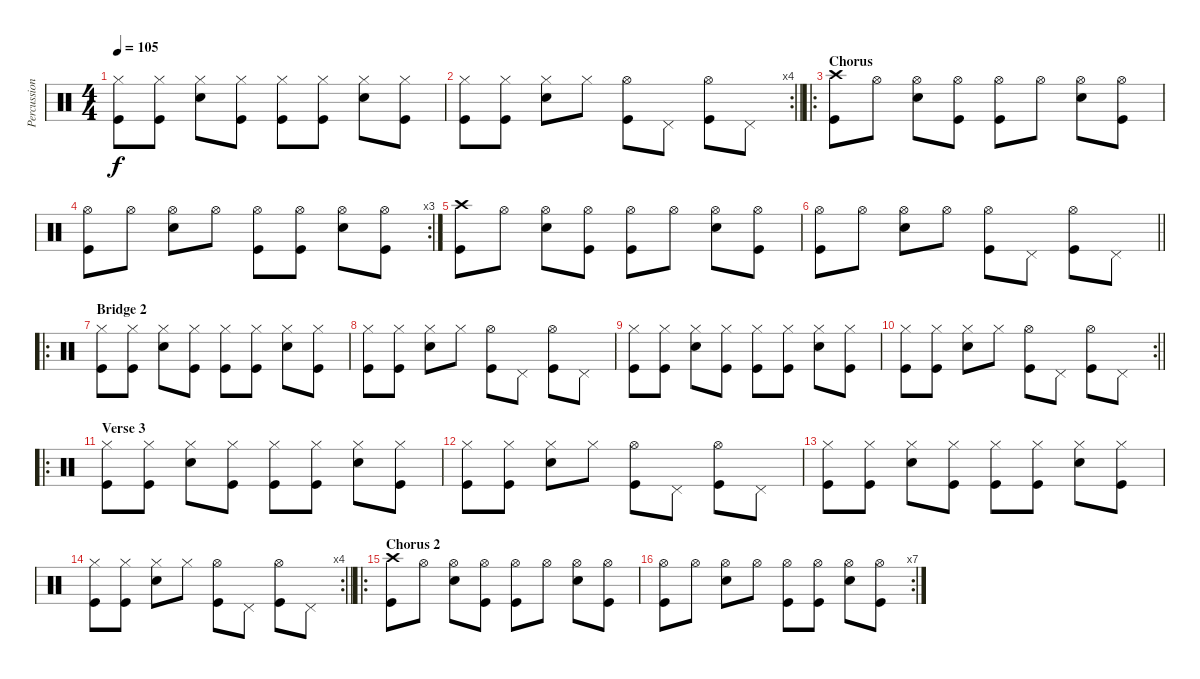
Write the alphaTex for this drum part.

\track ("Percussion" "Percussion") {instrument percussion}
\staff {score}
\articulation defaults
\ts (4 4)
\tempo 105
\clef neutral
\ks c
("Hi-Hat (closed)" "Kick (hit)").8{dy f} ("Hi-Hat (closed)" "Kick (hit)").8 ("Hi-Hat (closed)" "Electric Snare (hit)").8 ("Hi-Hat (closed)" "Kick (hit)").8 ("Hi-Hat (closed)" "Kick (hit)").8 ("Hi-Hat (closed)" "Kick (hit)").8 ("Hi-Hat (closed)" "Electric Snare (hit)").8 ("Hi-Hat (closed)" "Kick (hit)").8 |
\rc 4
\barLineRight lightlight
("Hi-Hat (closed)" "Kick (hit)").8 ("Hi-Hat (closed)" "Kick (hit)").8 ("Hi-Hat (closed)" "Electric Snare (hit)").8 "Hi-Hat (closed)".8 ("Hi-Hat (open)" "Kick (hit)").8 "Pedal Hi-Hat (hit)".8 ("Hi-Hat (open)" "Kick (hit)").8 "Pedal Hi-Hat (hit)".8 |
\ro
\section ("" "Chorus")
("Crash high (hit)" "Kick (hit)").8 "Hi-Hat (open)".8 ("Hi-Hat (open)" "Snare (hit) 2").8 ("Hi-Hat (open)" "Kick (hit)").8 ("Hi-Hat (open)" "Kick (hit)").8 "Hi-Hat (open)".8 ("Hi-Hat (open)" "Snare (hit) 2").8 ("Hi-Hat (open)" "Kick (hit)").8 |
\rc 3
("Hi-Hat (open)" "Kick (hit)").8 "Hi-Hat (open)".8 ("Hi-Hat (open)" "Snare (hit) 2").8 "Hi-Hat (open)".8 ("Hi-Hat (open)" "Kick (hit)").8 ("Hi-Hat (open)" "Kick (hit)").8 ("Hi-Hat (open)" "Snare (hit) 2").8 ("Hi-Hat (open)" "Kick (hit)").8 |
("Crash high (hit)" "Kick (hit)").8 "Hi-Hat (open)".8 ("Hi-Hat (open)" "Snare (hit) 2").8 ("Hi-Hat (open)" "Kick (hit)").8 ("Hi-Hat (open)" "Kick (hit)").8 "Hi-Hat (open)".8 ("Hi-Hat (open)" "Snare (hit) 2").8 ("Hi-Hat (open)" "Kick (hit)").8 |
\barLineRight lightlight
("Hi-Hat (open)" "Kick (hit)").8 "Hi-Hat (open)".8 ("Hi-Hat (open)" "Snare (hit) 2").8 "Hi-Hat (open)".8 ("Hi-Hat (open)" "Kick (hit)").8 "Pedal Hi-Hat (hit)".8 ("Hi-Hat (open)" "Kick (hit)").8 "Pedal Hi-Hat (hit)".8 |
\ro
\section ("" "Bridge 2")
("Hi-Hat (closed)" "Kick (hit)").8 ("Hi-Hat (closed)" "Kick (hit)").8 ("Hi-Hat (closed)" "Electric Snare (hit)").8 ("Hi-Hat (closed)" "Kick (hit)").8 ("Hi-Hat (closed)" "Kick (hit)").8 ("Hi-Hat (closed)" "Kick (hit)").8 ("Hi-Hat (closed)" "Electric Snare (hit)").8 ("Hi-Hat (closed)" "Kick (hit)").8 |
("Hi-Hat (closed)" "Kick (hit)").8 ("Hi-Hat (closed)" "Kick (hit)").8 ("Hi-Hat (closed)" "Electric Snare (hit)").8 "Hi-Hat (closed)".8 ("Hi-Hat (open)" "Kick (hit)").8 "Pedal Hi-Hat (hit)".8 ("Hi-Hat (open)" "Kick (hit)").8 "Pedal Hi-Hat (hit)".8 |
("Hi-Hat (closed)" "Kick (hit)").8 ("Hi-Hat (closed)" "Kick (hit)").8 ("Hi-Hat (closed)" "Electric Snare (hit)").8 ("Hi-Hat (closed)" "Kick (hit)").8 ("Hi-Hat (closed)" "Kick (hit)").8 ("Hi-Hat (closed)" "Kick (hit)").8 ("Hi-Hat (closed)" "Electric Snare (hit)").8 ("Hi-Hat (closed)" "Kick (hit)").8 |
\rc 2
\barLineRight lightlight
("Hi-Hat (closed)" "Kick (hit)").8 ("Hi-Hat (closed)" "Kick (hit)").8 ("Hi-Hat (closed)" "Electric Snare (hit)").8 "Hi-Hat (closed)".8 ("Hi-Hat (open)" "Kick (hit)").8 "Pedal Hi-Hat (hit)".8 ("Hi-Hat (open)" "Kick (hit)").8 "Pedal Hi-Hat (hit)".8 |
\ro
\section ("" "Verse 3")
("Hi-Hat (closed)" "Kick (hit)").8 ("Hi-Hat (closed)" "Kick (hit)").8 ("Hi-Hat (closed)" "Electric Snare (hit)").8 ("Hi-Hat (closed)" "Kick (hit)").8 ("Hi-Hat (closed)" "Kick (hit)").8 ("Hi-Hat (closed)" "Kick (hit)").8 ("Hi-Hat (closed)" "Electric Snare (hit)").8 ("Hi-Hat (closed)" "Kick (hit)").8 |
("Hi-Hat (closed)" "Kick (hit)").8 ("Hi-Hat (closed)" "Kick (hit)").8 ("Hi-Hat (closed)" "Electric Snare (hit)").8 "Hi-Hat (closed)".8 ("Hi-Hat (open)" "Kick (hit)").8 "Pedal Hi-Hat (hit)".8 ("Hi-Hat (open)" "Kick (hit)").8 "Pedal Hi-Hat (hit)".8 |
("Hi-Hat (closed)" "Kick (hit)").8 ("Hi-Hat (closed)" "Kick (hit)").8 ("Hi-Hat (closed)" "Electric Snare (hit)").8 ("Hi-Hat (closed)" "Kick (hit)").8 ("Hi-Hat (closed)" "Kick (hit)").8 ("Hi-Hat (closed)" "Kick (hit)").8 ("Hi-Hat (closed)" "Electric Snare (hit)").8 ("Hi-Hat (closed)" "Kick (hit)").8 |
\rc 4
\barLineRight lightlight
("Hi-Hat (closed)" "Kick (hit)").8 ("Hi-Hat (closed)" "Kick (hit)").8 ("Hi-Hat (closed)" "Electric Snare (hit)").8 "Hi-Hat (closed)".8 ("Hi-Hat (open)" "Kick (hit)").8 "Pedal Hi-Hat (hit)".8 ("Hi-Hat (open)" "Kick (hit)").8 "Pedal Hi-Hat (hit)".8 |
\ro
\section ("" "Chorus 2")
("Crash high (hit)" "Kick (hit)").8 "Hi-Hat (open)".8 ("Hi-Hat (open)" "Snare (hit) 2").8 ("Hi-Hat (open)" "Kick (hit)").8 ("Hi-Hat (open)" "Kick (hit)").8 "Hi-Hat (open)".8 ("Hi-Hat (open)" "Snare (hit) 2").8 ("Hi-Hat (open)" "Kick (hit)").8 |
\rc 7
("Hi-Hat (open)" "Kick (hit)").8 "Hi-Hat (open)".8 ("Hi-Hat (open)" "Snare (hit) 2").8 "Hi-Hat (open)".8 ("Hi-Hat (open)" "Kick (hit)").8 ("Hi-Hat (open)" "Kick (hit)").8 ("Hi-Hat (open)" "Snare (hit) 2").8 ("Hi-Hat (open)" "Kick (hit)").8
